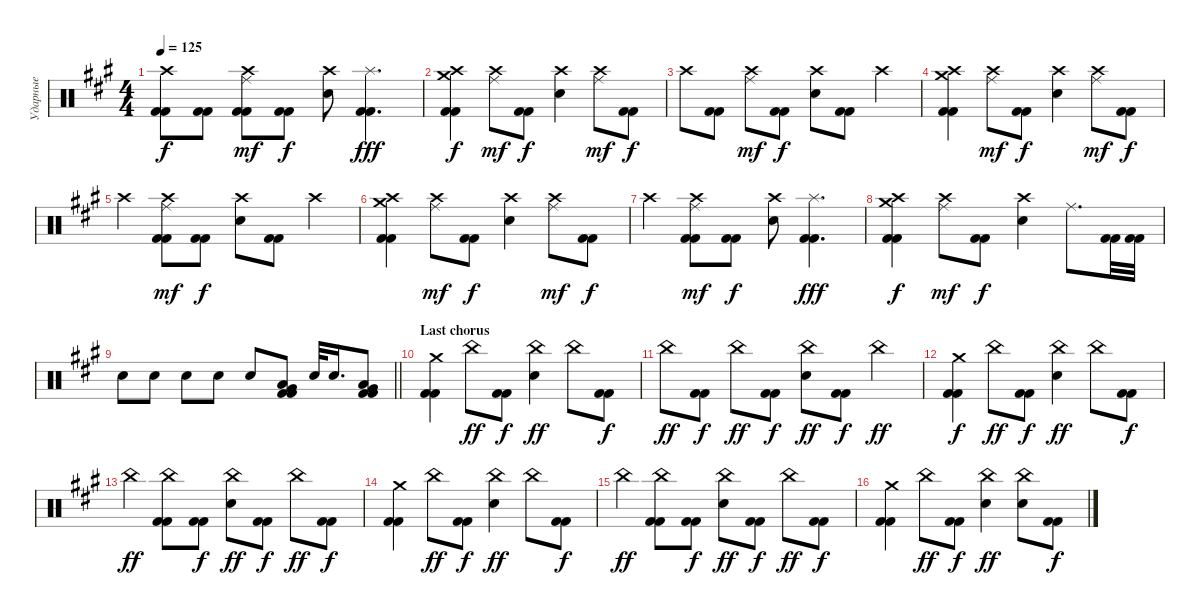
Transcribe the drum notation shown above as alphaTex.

\track ("Ударные" "Ударные") {instrument percussion}
\staff {score}
\articulation defaults
\ts (4 4)
\tempo 125
\clef neutral
\ks f#minor
("Crash high (hit)" "Kick (hit) 2" "Kick (hit) 2").8{dy f} ("Kick (hit) 2" "Kick (hit) 2").8 ("Crash high (hit)" "Ride (middle)" "Kick (hit) 2" "Kick (hit) 2").8{dy mf} ("Kick (hit) 2" "Kick (hit) 2").8{dy f} ("Crash high (hit)" "Electric Snare (hit)").8 ("Splash (hit)" "Kick (hit) 2" "Kick (hit) 2").4{d dy fff} |
("Crash high (hit)" "Crash medium (hit)" "Kick (hit) 2" "Kick (hit) 2").4{dy f} ("Crash high (hit)" "Ride (middle)").8{dy mf} ("Kick (hit) 2" "Kick (hit) 2").8{dy f} ("Crash high (hit)" "Electric Snare (hit)").4 ("Crash high (hit)" "Ride (middle)").8{dy mf} ("Kick (hit) 2" "Kick (hit) 2").8{dy f} |
"Crash high (hit)".8 ("Kick (hit) 2" "Kick (hit) 2").8 ("Crash high (hit)" "Ride (middle)").8{dy mf} ("Kick (hit) 2" "Kick (hit) 2").8{dy f} ("Crash high (hit)" "Electric Snare (hit)").8 ("Kick (hit) 2" "Kick (hit) 2").8 "Crash high (hit)".4 |
("Crash high (hit)" "Crash medium (hit)" "Kick (hit) 2" "Kick (hit) 2").4 ("Crash high (hit)" "Ride (middle)").8{dy mf} ("Kick (hit) 2" "Kick (hit) 2").8{dy f} ("Crash high (hit)" "Electric Snare (hit)").4 ("Crash high (hit)" "Ride (middle)").8{dy mf} ("Kick (hit) 2" "Kick (hit) 2").8{dy f} |
"Crash high (hit)".4 ("Crash high (hit)" "Ride (middle)" "Kick (hit) 2" "Kick (hit) 2").8{dy mf} ("Kick (hit) 2" "Kick (hit) 2").8{dy f} ("Crash high (hit)" "Electric Snare (hit)").8 ("Kick (hit) 2" "Kick (hit) 2").8 "Crash high (hit)".4 |
("Crash high (hit)" "Crash medium (hit)" "Kick (hit) 2" "Kick (hit) 2").4 ("Crash high (hit)" "Ride (middle)").8{dy mf} ("Kick (hit) 2" "Kick (hit) 2").8{dy f} ("Crash high (hit)" "Electric Snare (hit)").4 ("Crash high (hit)" "Ride (middle)").8{dy mf} ("Kick (hit) 2" "Kick (hit) 2").8{dy f} |
"Crash high (hit)".4 ("Crash high (hit)" "Ride (middle)" "Kick (hit) 2" "Kick (hit) 2").8{dy mf} ("Kick (hit) 2" "Kick (hit) 2").8{dy f} ("Crash high (hit)" "Electric Snare (hit)").8 ("Splash (hit)" "Kick (hit) 2" "Kick (hit) 2").4{d dy fff} |
("Crash high (hit)" "Crash medium (hit)" "Kick (hit) 2" "Kick (hit) 2").4{dy f} ("Crash high (hit)" "Ride (middle)").8{dy mf} ("Kick (hit) 2" "Kick (hit) 2").8{dy f} ("Crash high (hit)" "Electric Snare (hit)").4 "Ride (middle)".8{d} ("Kick (hit) 2" "Kick (hit) 2").32 ("Kick (hit) 2" "Kick (hit) 2").32 |
\barLineRight lightlight "Electric Snare (hit)".8 "Electric Snare (hit)".8 "Electric Snare (hit)".8 "Electric Snare (hit)".8 "Electric Snare (hit)".8
("Very Low Tom (hit)" "Low Floor Tom (hit)" "Kick (hit) 2" "Kick (hit) 2").8 "Electric Snare (hit)".32 "Electric Snare (hit)".16{d} ("Very Low Tom (hit)" "Low Floor Tom (hit)" "Kick (hit) 2" "Kick (hit) 2").8 |
\section ("" "Last chorus")
("Crash medium (hit)" "Kick (hit) 2" "Kick (hit) 2").4 "China (hit)".8{dy ff} ("Kick (hit) 2" "Kick (hit) 2").8{dy f} ("China (hit)" "Electric Snare (hit)").4{dy ff} "China (hit)".8 ("Kick (hit) 2" "Kick (hit) 2").8{dy f} |
"China (hit)".8{dy ff} ("Kick (hit) 2" "Kick (hit) 2").8{dy f} "China (hit)".8{dy ff} ("Kick (hit) 2" "Kick (hit) 2").8{dy f} ("China (hit)" "Electric Snare (hit)").8{dy ff} ("Kick (hit) 2" "Kick (hit) 2").8{dy f} "China (hit)".4{dy ff} |
("Crash medium (hit)" "Kick (hit) 2" "Kick (hit) 2").4{dy f} "China (hit)".8{dy ff} ("Kick (hit) 2" "Kick (hit) 2").8{dy f} ("China (hit)" "Electric Snare (hit)").4{dy ff} "China (hit)".8 ("Kick (hit) 2" "Kick (hit) 2").8{dy f} |
"China (hit)".4{dy ff} ("China (hit)" "Kick (hit) 2" "Kick (hit) 2").8 ("Kick (hit) 2" "Kick (hit) 2").8{dy f} ("China (hit)" "Electric Snare (hit)").8{dy ff} ("Kick (hit) 2" "Kick (hit) 2").8{dy f} "China (hit)".8{dy ff} ("Kick (hit) 2" "Kick (hit) 2").8{dy f} |
("Crash medium (hit)" "Kick (hit) 2" "Kick (hit) 2").4 "China (hit)".8{dy ff} ("Kick (hit) 2" "Kick (hit) 2").8{dy f} ("China (hit)" "Electric Snare (hit)").4{dy ff} "China (hit)".8 ("Kick (hit) 2" "Kick (hit) 2").8{dy f} |
"China (hit)".4{dy ff} ("China (hit)" "Kick (hit) 2" "Kick (hit) 2").8 ("Kick (hit) 2" "Kick (hit) 2").8{dy f} ("China (hit)" "Electric Snare (hit)").8{dy ff} ("Kick (hit) 2" "Kick (hit) 2").8{dy f} "China (hit)".8{dy ff} ("Kick (hit) 2" "Kick (hit) 2").8{dy f} |
("Crash medium (hit)" "Kick (hit) 2" "Kick (hit) 2").4 "China (hit)".8{dy ff} ("Kick (hit) 2" "Kick (hit) 2").8{dy f} ("China (hit)" "Electric Snare (hit)").4{dy ff} ("China (hit)" "Electric Snare (hit)").8 ("Kick (hit) 2" "Kick (hit) 2").8{dy f}
